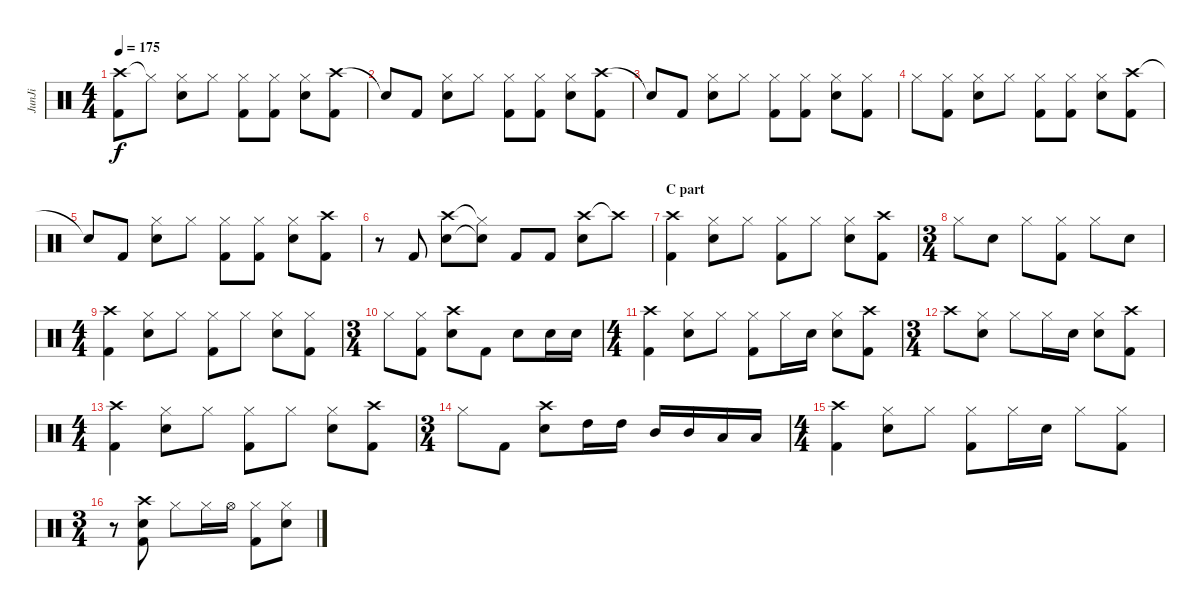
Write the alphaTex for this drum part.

\track ("JunJi" "JunJi") {instrument percussion}
\staff {score}
\articulation defaults
\ts (4 4)
\tempo 175
\clef neutral
\ks c
("Crash high (hit)" "Kick (hit) 2").8{dy f} "Hi-Hat (closed)"{t}.8 ("Hi-Hat (closed)" "Snare (hit) 2").8 "Hi-Hat (closed)".8 ("Hi-Hat (closed)" "Kick (hit) 2").8 ("Hi-Hat (closed)" "Kick (hit) 2").8 ("Hi-Hat (closed)" "Snare (hit) 2").8 ("Crash high (hit)" "Kick (hit) 2").8 |
"Snare (hit)"{t}.8 "Kick (hit) 2".8 ("Hi-Hat (closed)" "Snare (hit) 2").8 "Hi-Hat (closed)".8 ("Hi-Hat (closed)" "Kick (hit) 2").8 ("Hi-Hat (closed)" "Kick (hit) 2").8 ("Hi-Hat (closed)" "Snare (hit) 2").8 ("Crash high (hit)" "Kick (hit) 2").8 |
"Snare (hit)"{t}.8 "Kick (hit) 2".8 ("Hi-Hat (closed)" "Snare (hit) 2").8 "Hi-Hat (closed)".8 ("Hi-Hat (closed)" "Kick (hit) 2").8 ("Hi-Hat (closed)" "Kick (hit) 2").8 ("Hi-Hat (closed)" "Snare (hit) 2").8 ("Hi-Hat (closed)" "Kick (hit) 2").8 |
"Hi-Hat (closed)".8 ("Hi-Hat (closed)" "Kick (hit) 2").8 ("Hi-Hat (closed)" "Snare (hit) 2").8 "Hi-Hat (closed)".8 ("Hi-Hat (closed)" "Kick (hit) 2").8 ("Hi-Hat (closed)" "Kick (hit) 2").8 ("Hi-Hat (closed)" "Snare (hit) 2").8 ("Crash high (hit)" "Kick (hit) 2").8 |
"Snare (hit)"{t}.8 "Kick (hit) 2".8 ("Hi-Hat (closed)" "Snare (hit) 2").8 "Hi-Hat (closed)".8 ("Hi-Hat (closed)" "Kick (hit) 2").8 ("Hi-Hat (closed)" "Kick (hit) 2").8 ("Hi-Hat (closed)" "Snare (hit) 2").8 ("Crash high (hit)" "Kick (hit) 2").8 |
r.8 "Kick (hit) 2".8 ("Crash high (hit)" "Snare (hit) 2").8 ("Hi-Hat (closed)"{t} "Snare (hit)"{t}).8 "Kick (hit) 2".8 "Kick (hit) 2".8 ("Crash high (hit)" "Snare (hit) 2").8 "Crash high (hit)"{t}.8 |
\section ("" "C part")
("Crash high (hit)" "Kick (hit) 2").4 ("Hi-Hat (closed)" "Snare (hit) 2").8 "Hi-Hat (closed)".8 ("Hi-Hat (closed)" "Kick (hit) 2").8 "Hi-Hat (closed)".8 ("Hi-Hat (closed)" "Snare (hit) 2").8 ("Crash high (hit)" "Kick (hit) 2").8 |
\ts (3 4)
"Hi-Hat (closed)".8 "Snare (hit) 2".8 "Hi-Hat (closed)".8 ("Hi-Hat (closed)" "Kick (hit) 2").8 "Hi-Hat (closed)".8 "Snare (hit) 2".8 |
\ts (4 4)
("Crash high (hit)" "Kick (hit) 2").4 ("Hi-Hat (closed)" "Snare (hit) 2").8 "Hi-Hat (closed)".8 ("Hi-Hat (closed)" "Kick (hit) 2").8 "Hi-Hat (closed)".8 ("Hi-Hat (closed)" "Snare (hit) 2").8 ("Hi-Hat (closed)" "Kick (hit) 2").8 |
\ts (3 4)
"Hi-Hat (closed)".8 ("Hi-Hat (closed)" "Kick (hit) 2").8 ("Crash high (hit)" "Snare (hit) 2").8 "Kick (hit) 2".8 "Snare (hit) 2".8 "Snare (hit) 2".16 "Snare (hit) 2".16 |
\ts (4 4)
("Crash high (hit)" "Kick (hit) 2").4 ("Hi-Hat (closed)" "Snare (hit) 2").8 "Hi-Hat (closed)".8 ("Hi-Hat (closed)" "Kick (hit) 2").8 "Hi-Hat (closed)".16 "Snare (hit) 2".16 ("Hi-Hat (closed)" "Snare (hit) 2").8 ("Crash high (hit)" "Kick (hit) 2").8 |
\ts (3 4)
"Crash high (hit)".8 ("Hi-Hat (closed)" "Snare (hit) 2").8 "Hi-Hat (closed)".8 "Hi-Hat (closed)".16 "Snare (hit) 2".16 ("Hi-Hat (closed)" "Snare (hit) 2").8 ("Crash high (hit)" "Kick (hit) 2").8 |
\ts (4 4)
("Crash high (hit)" "Kick (hit) 2").4 ("Hi-Hat (closed)" "Snare (hit) 2").8 "Hi-Hat (closed)".8 ("Hi-Hat (closed)" "Kick (hit) 2").8 "Hi-Hat (closed)".8 ("Hi-Hat (closed)" "Snare (hit) 2").8 ("Crash high (hit)" "Kick (hit) 2").8 |
\ts (3 4)
"Hi-Hat (closed)".8 "Kick (hit) 2".8 ("Crash high (hit)" "Snare (hit) 2").8 "High Tom (hit)".16 "High Tom (hit)".16 "Mid Tom (hit)".16 "Mid Tom (hit)".16 "Low Tom (hit)".16 "Low Tom (hit)".16 |
\ts (4 4)
("Kick (hit) 2" "Crash high (hit)").4 ("Hi-Hat (closed)" "Snare (hit) 2").8 "Hi-Hat (closed)".8 ("Hi-Hat (closed)" "Kick (hit) 2").8 "Hi-Hat (closed)".16 "Snare (hit) 2".16 "Hi-Hat (closed)".8 ("Kick (hit) 2" "Hi-Hat (closed)").8 |
\ts (3 4)
r.8 ("Crash high (hit)" "Snare (hit) 2" "Kick (hit) 2").8 "Hi-Hat (closed)".8 "Hi-Hat (closed)".16 "Hi-Hat (open)".16 ("Hi-Hat (closed)" "Kick (hit) 2").8 ("Hi-Hat (closed)" "Snare (hit) 2").8
